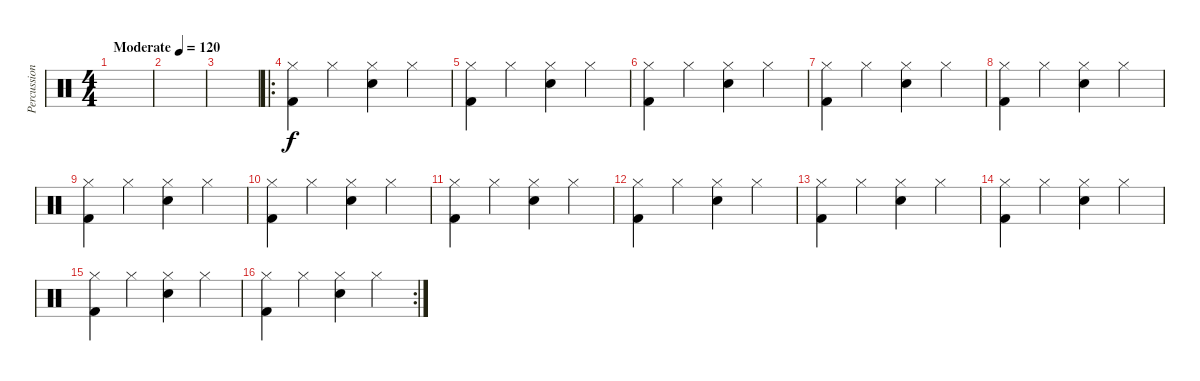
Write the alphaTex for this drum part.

\track ("Percussion" "Percussion") {instrument percussion}
\staff {score}
\articulation defaults
\ts (4 4)
\tempo (120 "Moderate")
\clef neutral
\ks c
|
|
|
\ro
("Hi-Hat (closed)" "Kick (hit) 2").4 "Hi-Hat (closed)".4 ("Hi-Hat (closed)" "Snare (hit) 2").4 "Hi-Hat (closed)".4 |
("Hi-Hat (closed)" "Kick (hit) 2").4 "Hi-Hat (closed)".4 ("Hi-Hat (closed)" "Snare (hit) 2").4 "Hi-Hat (closed)".4 |
("Hi-Hat (closed)" "Kick (hit) 2").4 "Hi-Hat (closed)".4 ("Hi-Hat (closed)" "Snare (hit) 2").4 "Hi-Hat (closed)".4 |
("Hi-Hat (closed)" "Kick (hit) 2").4 "Hi-Hat (closed)".4 ("Hi-Hat (closed)" "Snare (hit) 2").4 "Hi-Hat (closed)".4 |
("Hi-Hat (closed)" "Kick (hit) 2").4 "Hi-Hat (closed)".4 ("Hi-Hat (closed)" "Snare (hit) 2").4 "Hi-Hat (closed)".4 |
("Hi-Hat (closed)" "Kick (hit) 2").4 "Hi-Hat (closed)".4 ("Hi-Hat (closed)" "Snare (hit) 2").4 "Hi-Hat (closed)".4 |
("Hi-Hat (closed)" "Kick (hit) 2").4 "Hi-Hat (closed)".4 ("Hi-Hat (closed)" "Snare (hit) 2").4 "Hi-Hat (closed)".4 |
("Hi-Hat (closed)" "Kick (hit) 2").4 "Hi-Hat (closed)".4 ("Hi-Hat (closed)" "Snare (hit) 2").4 "Hi-Hat (closed)".4 |
("Hi-Hat (closed)" "Kick (hit) 2").4 "Hi-Hat (closed)".4 ("Hi-Hat (closed)" "Snare (hit) 2").4 "Hi-Hat (closed)".4 |
("Hi-Hat (closed)" "Kick (hit) 2").4 "Hi-Hat (closed)".4 ("Hi-Hat (closed)" "Snare (hit) 2").4 "Hi-Hat (closed)".4 |
("Hi-Hat (closed)" "Kick (hit) 2").4 "Hi-Hat (closed)".4 ("Hi-Hat (closed)" "Snare (hit) 2").4 "Hi-Hat (closed)".4 |
("Hi-Hat (closed)" "Kick (hit) 2").4 "Hi-Hat (closed)".4 ("Hi-Hat (closed)" "Snare (hit) 2").4 "Hi-Hat (closed)".4 |
\rc 2
("Hi-Hat (closed)" "Kick (hit) 2").4 "Hi-Hat (closed)".4 ("Hi-Hat (closed)" "Snare (hit) 2").4 "Hi-Hat (closed)".4
